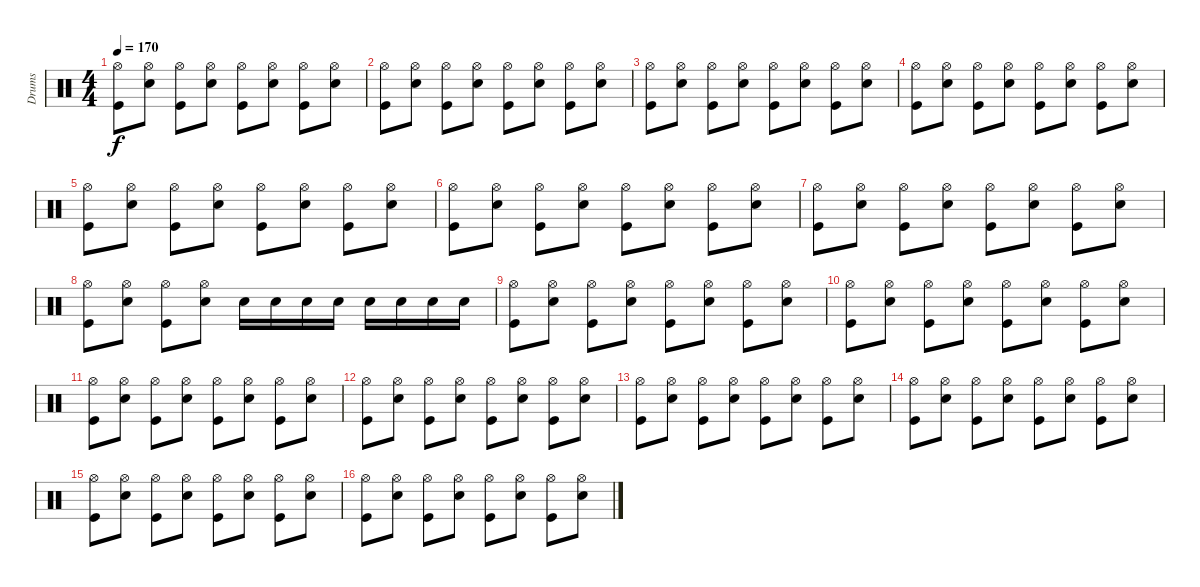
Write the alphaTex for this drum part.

\track ("Drums" "Drums") {instrument percussion}
\staff {score}
\articulation defaults
\ts (4 4)
\tempo 170
\clef neutral
\ks c
("Hi-Hat (open)" "Kick (hit)").8{dy f} ("Hi-Hat (open)" "Snare (hit) 2").8 ("Hi-Hat (open)" "Kick (hit)").8 ("Hi-Hat (open)" "Snare (hit) 2").8 ("Hi-Hat (open)" "Kick (hit)").8 ("Hi-Hat (open)" "Snare (hit) 2").8 ("Hi-Hat (open)" "Kick (hit)").8 ("Hi-Hat (open)" "Snare (hit) 2").8 |
("Hi-Hat (open)" "Kick (hit)").8 ("Hi-Hat (open)" "Snare (hit) 2").8 ("Hi-Hat (open)" "Kick (hit)").8 ("Hi-Hat (open)" "Snare (hit) 2").8 ("Hi-Hat (open)" "Kick (hit)").8 ("Hi-Hat (open)" "Snare (hit) 2").8 ("Hi-Hat (open)" "Kick (hit)").8 ("Hi-Hat (open)" "Snare (hit) 2").8 |
("Hi-Hat (open)" "Kick (hit)").8 ("Hi-Hat (open)" "Snare (hit) 2").8 ("Hi-Hat (open)" "Kick (hit)").8 ("Hi-Hat (open)" "Snare (hit) 2").8 ("Hi-Hat (open)" "Kick (hit)").8 ("Hi-Hat (open)" "Snare (hit) 2").8 ("Hi-Hat (open)" "Kick (hit)").8 ("Hi-Hat (open)" "Snare (hit) 2").8 |
("Hi-Hat (open)" "Kick (hit)").8 ("Hi-Hat (open)" "Snare (hit) 2").8 ("Hi-Hat (open)" "Kick (hit)").8 ("Hi-Hat (open)" "Snare (hit) 2").8 ("Hi-Hat (open)" "Kick (hit)").8 ("Hi-Hat (open)" "Snare (hit) 2").8 ("Hi-Hat (open)" "Kick (hit)").8 ("Hi-Hat (open)" "Snare (hit) 2").8 |
("Hi-Hat (open)" "Kick (hit)").8 ("Hi-Hat (open)" "Snare (hit) 2").8 ("Hi-Hat (open)" "Kick (hit)").8 ("Hi-Hat (open)" "Snare (hit) 2").8 ("Hi-Hat (open)" "Kick (hit)").8 ("Hi-Hat (open)" "Snare (hit) 2").8 ("Hi-Hat (open)" "Kick (hit)").8 ("Hi-Hat (open)" "Snare (hit) 2").8 |
("Hi-Hat (open)" "Kick (hit)").8 ("Hi-Hat (open)" "Snare (hit) 2").8 ("Hi-Hat (open)" "Kick (hit)").8 ("Hi-Hat (open)" "Snare (hit) 2").8 ("Hi-Hat (open)" "Kick (hit)").8 ("Hi-Hat (open)" "Snare (hit) 2").8 ("Hi-Hat (open)" "Kick (hit)").8 ("Hi-Hat (open)" "Snare (hit) 2").8 |
("Hi-Hat (open)" "Kick (hit)").8 ("Hi-Hat (open)" "Snare (hit) 2").8 ("Hi-Hat (open)" "Kick (hit)").8 ("Hi-Hat (open)" "Snare (hit) 2").8 ("Hi-Hat (open)" "Kick (hit)").8 ("Hi-Hat (open)" "Snare (hit) 2").8 ("Hi-Hat (open)" "Kick (hit)").8 ("Hi-Hat (open)" "Snare (hit) 2").8 |
("Hi-Hat (open)" "Kick (hit)").8 ("Hi-Hat (open)" "Snare (hit) 2").8 ("Hi-Hat (open)" "Kick (hit)").8 ("Hi-Hat (open)" "Snare (hit) 2").8 "Snare (hit) 2".16 "Snare (hit) 2".16 "Snare (hit) 2".16 "Snare (hit) 2".16 "Snare (hit) 2".16 "Snare (hit) 2".16 "Snare (hit) 2".16 "Snare (hit) 2".16 |
("Hi-Hat (open)" "Kick (hit)").8 ("Hi-Hat (open)" "Snare (hit) 2").8 ("Hi-Hat (open)" "Kick (hit)").8 ("Hi-Hat (open)" "Snare (hit) 2").8 ("Hi-Hat (open)" "Kick (hit)").8 ("Hi-Hat (open)" "Snare (hit) 2").8 ("Hi-Hat (open)" "Kick (hit)").8 ("Hi-Hat (open)" "Snare (hit) 2").8 |
("Hi-Hat (open)" "Kick (hit)").8 ("Hi-Hat (open)" "Snare (hit) 2").8 ("Hi-Hat (open)" "Kick (hit)").8 ("Hi-Hat (open)" "Snare (hit) 2").8 ("Hi-Hat (open)" "Kick (hit)").8 ("Hi-Hat (open)" "Snare (hit) 2").8 ("Hi-Hat (open)" "Kick (hit)").8 ("Hi-Hat (open)" "Snare (hit) 2").8 |
("Hi-Hat (open)" "Kick (hit)").8 ("Hi-Hat (open)" "Snare (hit) 2").8 ("Hi-Hat (open)" "Kick (hit)").8 ("Hi-Hat (open)" "Snare (hit) 2").8 ("Hi-Hat (open)" "Kick (hit)").8 ("Hi-Hat (open)" "Snare (hit) 2").8 ("Hi-Hat (open)" "Kick (hit)").8 ("Hi-Hat (open)" "Snare (hit) 2").8 |
("Hi-Hat (open)" "Kick (hit)").8 ("Hi-Hat (open)" "Snare (hit) 2").8 ("Hi-Hat (open)" "Kick (hit)").8 ("Hi-Hat (open)" "Snare (hit) 2").8 ("Hi-Hat (open)" "Kick (hit)").8 ("Hi-Hat (open)" "Snare (hit) 2").8 ("Hi-Hat (open)" "Kick (hit)").8 ("Hi-Hat (open)" "Snare (hit) 2").8 |
("Hi-Hat (open)" "Kick (hit)").8 ("Hi-Hat (open)" "Snare (hit) 2").8 ("Hi-Hat (open)" "Kick (hit)").8 ("Hi-Hat (open)" "Snare (hit) 2").8 ("Hi-Hat (open)" "Kick (hit)").8 ("Hi-Hat (open)" "Snare (hit) 2").8 ("Hi-Hat (open)" "Kick (hit)").8 ("Hi-Hat (open)" "Snare (hit) 2").8 |
("Hi-Hat (open)" "Kick (hit)").8 ("Hi-Hat (open)" "Snare (hit) 2").8 ("Hi-Hat (open)" "Kick (hit)").8 ("Hi-Hat (open)" "Snare (hit) 2").8 ("Hi-Hat (open)" "Kick (hit)").8 ("Hi-Hat (open)" "Snare (hit) 2").8 ("Hi-Hat (open)" "Kick (hit)").8 ("Hi-Hat (open)" "Snare (hit) 2").8 |
("Hi-Hat (open)" "Kick (hit)").8 ("Hi-Hat (open)" "Snare (hit) 2").8 ("Hi-Hat (open)" "Kick (hit)").8 ("Hi-Hat (open)" "Snare (hit) 2").8 ("Hi-Hat (open)" "Kick (hit)").8 ("Hi-Hat (open)" "Snare (hit) 2").8 ("Hi-Hat (open)" "Kick (hit)").8 ("Hi-Hat (open)" "Snare (hit) 2").8 |
("Hi-Hat (open)" "Kick (hit)").8 ("Hi-Hat (open)" "Snare (hit) 2").8 ("Hi-Hat (open)" "Kick (hit)").8 ("Hi-Hat (open)" "Snare (hit) 2").8 ("Hi-Hat (open)" "Kick (hit)").8 ("Hi-Hat (open)" "Snare (hit) 2").8 ("Hi-Hat (open)" "Kick (hit)").8 ("Hi-Hat (open)" "Snare (hit) 2").8
